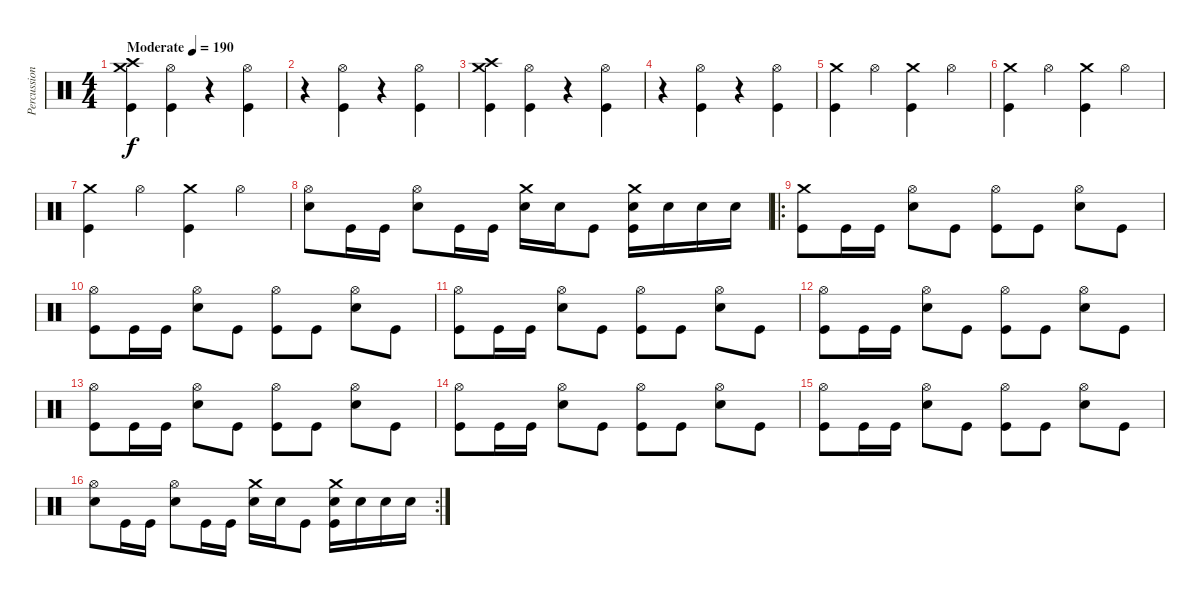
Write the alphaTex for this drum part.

\track ("Percussion" "Percussion") {instrument percussion}
\staff {score}
\articulation defaults
\ts (4 4)
\tempo (190 "Moderate")
\clef neutral
\ks c
("Crash medium (hit)" "Crash high (hit)" "Kick (hit)").4{dy f} ("Hi-Hat (open)" "Kick (hit)").4 r.4 ("Hi-Hat (open)" "Kick (hit)").4 |
r.4 ("Hi-Hat (open)" "Kick (hit)").4 r.4 ("Hi-Hat (open)" "Kick (hit)").4 |
("Crash medium (hit)" "Crash high (hit)" "Kick (hit)").4 ("Hi-Hat (open)" "Kick (hit)").4 r.4 ("Hi-Hat (open)" "Kick (hit)").4 |
r.4 ("Hi-Hat (open)" "Kick (hit)").4 r.4 ("Hi-Hat (open)" "Kick (hit)").4 |
("Crash medium (hit)" "Kick (hit)").4 "Hi-Hat (open)".4 ("Crash medium (hit)" "Kick (hit)").4 "Hi-Hat (open)".4 |
("Crash medium (hit)" "Kick (hit)").4 "Hi-Hat (open)".4 ("Crash medium (hit)" "Kick (hit)").4 "Hi-Hat (open)".4 |
("Crash medium (hit)" "Kick (hit)").4 "Hi-Hat (open)".4 ("Crash medium (hit)" "Kick (hit)").4 "Hi-Hat (open)".4 |
("Hi-Hat (open)" "Electric Snare (hit)").8 "Kick (hit)".16 "Kick (hit)".16 ("Hi-Hat (open)" "Electric Snare (hit)").8 "Kick (hit)".16 "Kick (hit)".16 ("Crash medium (hit)" "Electric Snare (hit)").16 "Electric Snare (hit)".16 "Kick (hit)".8 ("Crash medium (hit)" "Electric Snare (hit)" "Kick (hit)").16 "Electric Snare (hit)".16 "Electric Snare (hit)".16 "Electric Snare (hit)".16 |
\ro
("Crash medium (hit)" "Kick (hit)").8 "Kick (hit)".16 "Kick (hit)".16 ("Hi-Hat (open)" "Electric Snare (hit)").8 "Kick (hit)".8 ("Hi-Hat (open)" "Kick (hit)").8 "Kick (hit)".8 ("Hi-Hat (open)" "Electric Snare (hit)").8 "Kick (hit)".8 |
("Hi-Hat (open)" "Kick (hit)").8 "Kick (hit)".16 "Kick (hit)".16 ("Hi-Hat (open)" "Electric Snare (hit)").8 "Kick (hit)".8 ("Hi-Hat (open)" "Kick (hit)").8 "Kick (hit)".8 ("Hi-Hat (open)" "Electric Snare (hit)").8 "Kick (hit)".8 |
("Hi-Hat (open)" "Kick (hit)").8 "Kick (hit)".16 "Kick (hit)".16 ("Hi-Hat (open)" "Electric Snare (hit)").8 "Kick (hit)".8 ("Hi-Hat (open)" "Kick (hit)").8 "Kick (hit)".8 ("Hi-Hat (open)" "Electric Snare (hit)").8 "Kick (hit)".8 |
("Hi-Hat (open)" "Kick (hit)").8 "Kick (hit)".16 "Kick (hit)".16 ("Hi-Hat (open)" "Electric Snare (hit)").8 "Kick (hit)".8 ("Hi-Hat (open)" "Kick (hit)").8 "Kick (hit)".8 ("Hi-Hat (open)" "Electric Snare (hit)").8 "Kick (hit)".8 |
("Hi-Hat (open)" "Kick (hit)").8 "Kick (hit)".16 "Kick (hit)".16 ("Hi-Hat (open)" "Electric Snare (hit)").8 "Kick (hit)".8 ("Hi-Hat (open)" "Kick (hit)").8 "Kick (hit)".8 ("Hi-Hat (open)" "Electric Snare (hit)").8 "Kick (hit)".8 |
("Hi-Hat (open)" "Kick (hit)").8 "Kick (hit)".16 "Kick (hit)".16 ("Hi-Hat (open)" "Electric Snare (hit)").8 "Kick (hit)".8 ("Hi-Hat (open)" "Kick (hit)").8 "Kick (hit)".8 ("Hi-Hat (open)" "Electric Snare (hit)").8 "Kick (hit)".8 |
("Hi-Hat (open)" "Kick (hit)").8 "Kick (hit)".16 "Kick (hit)".16 ("Hi-Hat (open)" "Electric Snare (hit)").8 "Kick (hit)".8 ("Hi-Hat (open)" "Kick (hit)").8 "Kick (hit)".8 ("Hi-Hat (open)" "Electric Snare (hit)").8 "Kick (hit)".8 |
\rc 2
("Hi-Hat (open)" "Electric Snare (hit)").8 "Kick (hit)".16 "Kick (hit)".16 ("Hi-Hat (open)" "Electric Snare (hit)").8 "Kick (hit)".16 "Kick (hit)".16 ("Crash medium (hit)" "Electric Snare (hit)").16 "Electric Snare (hit)".16 "Kick (hit)".8 ("Crash medium (hit)" "Electric Snare (hit)" "Kick (hit)").16 "Electric Snare (hit)".16 "Electric Snare (hit)".16 "Electric Snare (hit)".16
